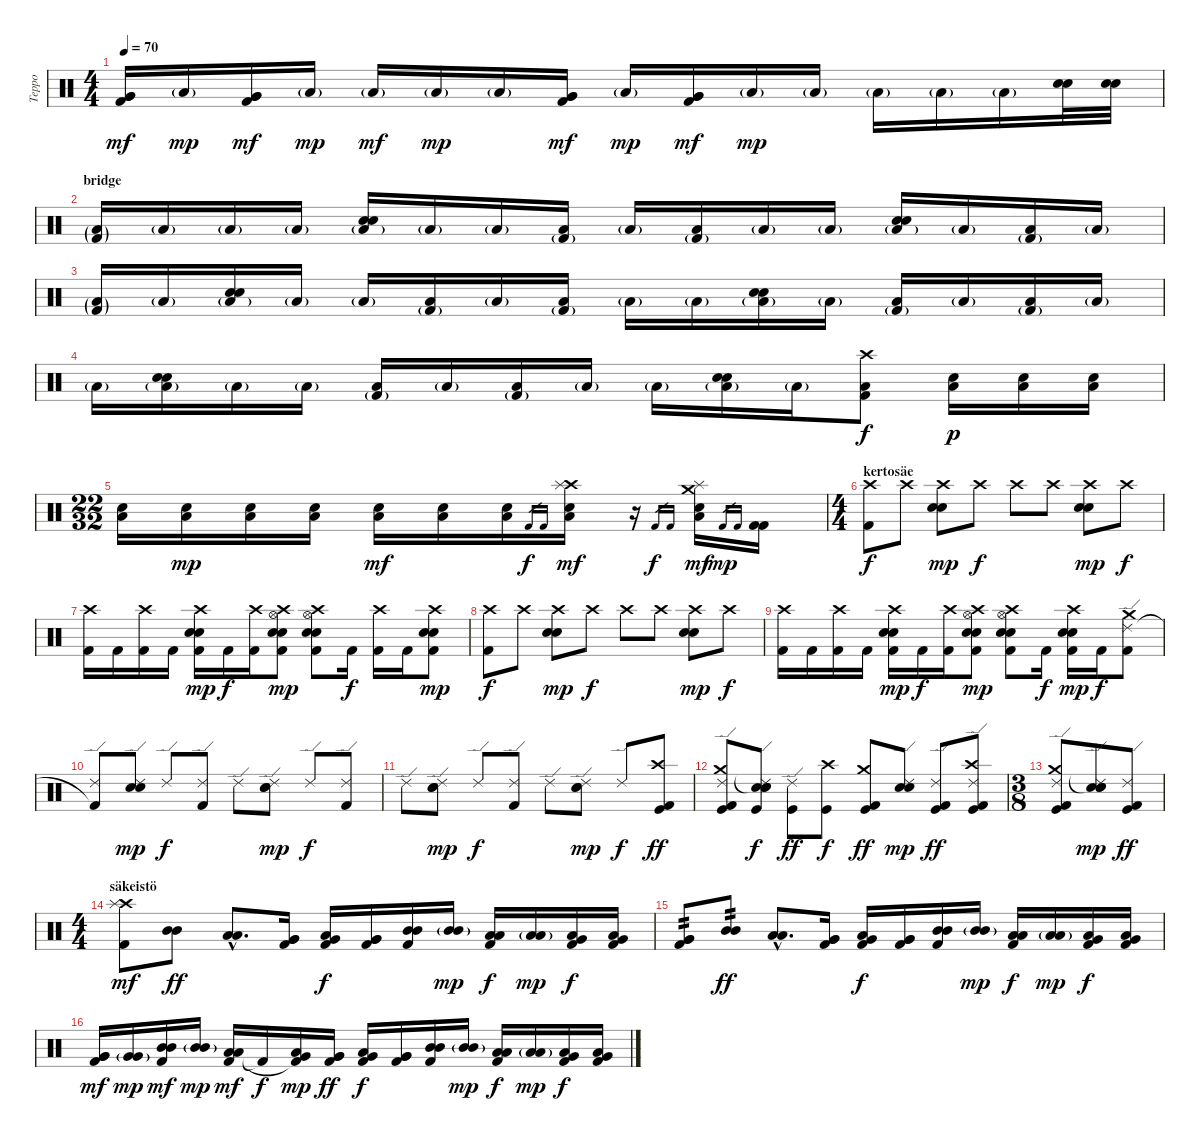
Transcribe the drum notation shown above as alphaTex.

\track ("Teppo" "Teppo") {instrument percussion}
\staff {score}
\articulation defaults
\ts (4 4)
\tempo 70
\clef neutral
\ks c
("Very Low Tom (hit)" "Very Low Tom (hit)" "Kick (hit) 2").16{dy mf} "Low Floor Tom (hit)"{g}.16{dy mp} ("Very Low Tom (hit)" "Very Low Tom (hit)" "Kick (hit) 2").16{dy mf} "Low Floor Tom (hit)"{g}.16{dy mp} "Low Floor Tom (hit)"{g}.16{dy mf} "Low Floor Tom (hit)"{g}.16{dy mp} "Low Floor Tom (hit)"{g}.16 ("Very Low Tom (hit)" "Very Low Tom (hit)" "Kick (hit) 2").16{dy mf} "Low Floor Tom (hit)"{g}.16{dy mp} ("Very Low Tom (hit)" "Very Low Tom (hit)" "Kick (hit) 2").16{dy mf} "Low Floor Tom (hit)"{g}.16{dy mp} "Low Floor Tom (hit)"{g}.16 "Low Floor Tom (hit)"{g}.16 "Low Floor Tom (hit)"{g}.16 "Low Floor Tom (hit)"{g}.16 ("Snare (hit) 2" "Electric Snare (hit)").32 ("Snare (hit) 2" "Electric Snare (hit)").32 |
\section ("" "bridge")
("Low Floor Tom (hit)"{g} "Kick (hit) 2"{g}).16 "Low Floor Tom (hit)"{g}.16 "Low Floor Tom (hit)"{g}.16 "Low Floor Tom (hit)"{g}.16 ("Low Floor Tom (hit)"{g} "Snare (hit) 2" "Electric Snare (hit)").16 "Low Floor Tom (hit)"{g}.16 "Low Floor Tom (hit)"{g}.16 ("Low Floor Tom (hit)" "Kick (hit) 2"{g}).16 "Low Floor Tom (hit)"{g}.16 ("Low Floor Tom (hit)" "Kick (hit) 2"{g}).16 "Low Floor Tom (hit)"{g}.16 "Low Floor Tom (hit)"{g}.16 ("Low Floor Tom (hit)"{g} "Snare (hit) 2" "Electric Snare (hit)").16 "Low Floor Tom (hit)"{g}.16 ("Low Floor Tom (hit)" "Kick (hit) 2"{g}).16 "Low Floor Tom (hit)"{g}.16 |
("Low Floor Tom (hit)"{g} "Kick (hit) 2"{g}).16 "Low Floor Tom (hit)"{g}.16 ("Low Floor Tom (hit)"{g} "Snare (hit) 2" "Electric Snare (hit)").16 "Low Floor Tom (hit)"{g}.16 "Low Floor Tom (hit)"{g}.16 ("Low Floor Tom (hit)" "Kick (hit) 2"{g}).16 "Low Floor Tom (hit)"{g}.16 ("Low Floor Tom (hit)" "Kick (hit) 2"{g}).16 "Low Floor Tom (hit)"{g}.16 "Low Floor Tom (hit)"{g}.16 ("Low Floor Tom (hit)"{g} "Snare (hit) 2" "Electric Snare (hit)").16 "Low Floor Tom (hit)"{g}.16 ("Low Floor Tom (hit)" "Kick (hit) 2"{g}).16 "Low Floor Tom (hit)"{g}.16 ("Low Floor Tom (hit)" "Kick (hit) 2"{g}).16 "Low Floor Tom (hit)"{g}.16 |
"Low Floor Tom (hit)"{g}.16 ("Low Floor Tom (hit)"{g} "Snare (hit) 2" "Electric Snare (hit)").16 "Low Floor Tom (hit)"{g}.16 "Low Floor Tom (hit)"{g}.16 ("Low Floor Tom (hit)" "Kick (hit) 2"{g}).16 "Low Floor Tom (hit)"{g}.16 ("Low Floor Tom (hit)" "Kick (hit) 2"{g}).16 "Low Floor Tom (hit)"{g}.16 "Low Floor Tom (hit)"{g}.16 ("Low Floor Tom (hit)"{g} "Snare (hit) 2" "Electric Snare (hit)").16 "Low Floor Tom (hit)"{g}.16 ("Crash high (hit)" "Low Floor Tom (hit)" "Kick (hit) 2").8{dy f} ("Low Floor Tom (hit)" "Electric Snare (hit)").16{dy p} ("Low Floor Tom (hit)" "Electric Snare (hit)").16 ("Low Floor Tom (hit)" "Electric Snare (hit)").16 |
\ts (22 32)
("Low Floor Tom (hit)" "Electric Snare (hit)").16 ("Low Floor Tom (hit)" "Electric Snare (hit)").16{dy mp} ("Low Floor Tom (hit)" "Electric Snare (hit)").16 ("Low Floor Tom (hit)" "Electric Snare (hit)").16 ("Low Floor Tom (hit)" "Electric Snare (hit)").16{dy mf} ("Low Floor Tom (hit)" "Electric Snare (hit)").16 ("Low Floor Tom (hit)" "Electric Snare (hit)").16 "Kick (hit) 2".16{gr dy f} "Kick (hit) 2".16{gr} ("Crash high (hit)" "Splash (hit)" "Low Floor Tom (hit)" "Electric Snare (hit)").16{dy mf} r.16 "Kick (hit) 2".16{gr dy f} "Kick (hit) 2".16{gr} ("Crash medium (hit)" "Splash (hit)" "Low Floor Tom (hit)" "Electric Snare (hit)").16{dy mf} "Kick (hit) 2".16{gr dy mp} "Kick (hit) 2".16{gr} ("Kick (hit) 2" "Kick (hit) 2").16 |
\ts (4 4)
\section ("" "kertosäe")
("Crash high (hit)" "Kick (hit) 2").8{dy f} "Crash high (hit)".8 ("Crash high (hit)" "Snare (hit) 2" "Electric Snare (hit)").8{dy mp} "Crash high (hit)".8{dy f} "Crash high (hit)".8 "Crash high (hit)".8 ("Crash high (hit)" "Snare (hit) 2" "Electric Snare (hit)").8{dy mp} "Crash high (hit)".8{dy f} |
("Crash high (hit)" "Kick (hit) 2").16 "Kick (hit) 2".16 ("Crash high (hit)" "Kick (hit) 2").16 "Kick (hit) 2".16 ("Crash high (hit)" "Snare (hit) 2" "Electric Snare (hit)" "Kick (hit) 2").16{dy mp} "Kick (hit) 2".16{dy f} ("Crash high (hit)" "Kick (hit) 2").16 ("Hi-Hat (open)" "Crash high (hit)" "Snare (hit) 2" "Electric Snare (hit)" "Kick (hit) 2").8{dy mp} ("Hi-Hat (open)" "Crash high (hit)" "Snare (hit) 2" "Electric Snare (hit)" "Kick (hit) 2").8 "Kick (hit) 2".16{dy f} ("Crash high (hit)" "Kick (hit) 2").16 "Kick (hit) 2".16 ("Crash high (hit)" "Snare (hit) 2" "Electric Snare (hit)" "Kick (hit) 2").8{dy mp} |
("Crash high (hit)" "Kick (hit) 2").8{dy f} "Crash high (hit)".8 ("Crash high (hit)" "Snare (hit) 2" "Electric Snare (hit)").8{dy mp} "Crash high (hit)".8{dy f} "Crash high (hit)".8 "Crash high (hit)".8 ("Crash high (hit)" "Snare (hit) 2" "Electric Snare (hit)").8{dy mp} "Crash high (hit)".8{dy f} |
("Crash high (hit)" "Kick (hit) 2").16 "Kick (hit) 2".16 ("Crash high (hit)" "Kick (hit) 2").16 "Kick (hit) 2".16 ("Crash high (hit)" "Snare (hit) 2" "Electric Snare (hit)" "Kick (hit) 2").16{dy mp} "Kick (hit) 2".16{dy f} ("Crash high (hit)" "Kick (hit) 2").16 ("Hi-Hat (open)" "Crash high (hit)" "Snare (hit) 2" "Electric Snare (hit)" "Kick (hit) 2").8{dy mp} ("Hi-Hat (open)" "Crash high (hit)" "Snare (hit) 2" "Electric Snare (hit)" "Kick (hit) 2").8 "Kick (hit) 2".16{dy f} ("Crash high (hit)" "Snare (hit) 2" "Electric Snare (hit)" "Kick (hit) 2").16{dy mp} "Kick (hit) 2".16{dy f} ("Crash medium (hit)" "Ride (edge) 2" "Kick (hit) 2").8 |
("Ride (edge) 2" "Kick (hit) 2"{t}).8 ("Ride (edge) 2" "Snare (hit) 2" "Electric Snare (hit)").8{dy mp} "Ride (edge) 2".8{dy f} ("Ride (edge) 2" "Kick (hit) 2").8 "Ride (edge) 2".8 ("Ride (edge) 2" "Snare (hit) 2" "Electric Snare (hit)").8{dy mp} "Ride (edge) 2".8{dy f} ("Ride (edge) 2" "Kick (hit) 2").8 |
"Ride (edge) 2".8 ("Ride (edge) 2" "Snare (hit) 2" "Electric Snare (hit)").8{dy mp} "Ride (edge) 2".8{dy f} ("Ride (edge) 2" "Kick (hit) 2").8 "Ride (edge) 2".8 ("Ride (edge) 2" "Snare (hit) 2" "Electric Snare (hit)").8{dy mp} "Ride (edge) 2".8{dy f} ("Crash high (hit)" "Kick (hit) 2" "Kick (hit)").8{dy ff} |
("Ride (edge) 2" "Crash medium (hit)" "Kick (hit) 2" "Kick (hit)").8 ("Ride (edge) 2" "Snare (hit)"{t} "Snare (hit) 2" "Electric Snare (hit)" "Kick (hit)").8{dy f} ("Ride (edge) 2" "Kick (hit)").8{dy ff} ("Crash high (hit)" "Kick (hit)").8{dy f} ("Crash medium (hit)" "Kick (hit) 2" "Kick (hit)").8{dy ff} ("Ride (edge) 2" "Snare (hit) 2" "Electric Snare (hit)").8{dy mp} ("Ride (edge) 2" "Kick (hit) 2" "Kick (hit)").8{dy ff} ("Crash high (hit)" "Ride (edge) 2" "Kick (hit) 2" "Kick (hit)").8 |
\ts (3 8)
("Ride (edge) 2" "Crash medium (hit)" "Kick (hit) 2" "Kick (hit)").8 ("Ride (edge) 2" "Snare (hit)"{t} "Snare (hit) 2" "Electric Snare (hit)").8{dy mp} ("Ride (edge) 2" "Kick (hit) 2" "Kick (hit)").8{dy ff} |
\ts (4 4)
\section ("" "säkeistö")
("Crash high (hit)" "Splash (hit)" "Kick (hit) 2").8{dy mf} ("Mid Tom (hit)" "Mid Tom (hit)").8{dy ff} ("Low Tom (hit)"{hac} "Low Tom (hit)"{hac}).8{d} ("Very Low Tom (hit)" "Very Low Tom (hit)" "Kick (hit) 2").16 ("Low Tom (hit)" "Very Low Tom (hit)" "Kick (hit) 2").16{dy f} ("Very Low Tom (hit)" "Very Low Tom (hit)" "Kick (hit) 2").16 ("Mid Tom (hit)" "Mid Tom (hit)" "Kick (hit) 2").16 ("Mid Tom (hit)"{g} "Mid Tom (hit)"{g}).16{dy mp} ("Low Tom (hit)" "Low Tom (hit)" "Kick (hit) 2").16{dy f} ("Low Tom (hit)"{g} "Low Tom (hit)"{g}).16{dy mp} ("Very Low Tom (hit)" "Low Tom (hit)" "Kick (hit) 2").16{dy f} ("Low Floor Tom (hit)" "Very Low Tom (hit)" "Kick (hit) 2").16 |
("Very Low Tom (hit)" "Very Low Tom (hit)" "Kick (hit) 2").8{tp 2} ("Mid Tom (hit)" "Mid Tom (hit)").8{tp 2 dy ff} ("Low Tom (hit)"{hac} "Low Tom (hit)"{hac}).8{d} ("Very Low Tom (hit)" "Very Low Tom (hit)" "Kick (hit) 2").16 ("Low Tom (hit)" "Very Low Tom (hit)" "Kick (hit) 2").16{dy f} ("Very Low Tom (hit)" "Very Low Tom (hit)" "Kick (hit) 2").16 ("Mid Tom (hit)" "Mid Tom (hit)" "Kick (hit) 2").16 ("Mid Tom (hit)"{g} "Mid Tom (hit)"{g}).16{dy mp} ("Low Tom (hit)" "Low Tom (hit)" "Kick (hit) 2").16{dy f} ("Low Tom (hit)"{g} "Low Tom (hit)"{g}).16{dy mp} ("Very Low Tom (hit)" "Low Tom (hit)" "Kick (hit) 2").16{dy f} ("Low Floor Tom (hit)" "Very Low Tom (hit)" "Kick (hit) 2").16 |
("Very Low Tom (hit)" "Very Low Tom (hit)" "Kick (hit) 2").16{dy mf} ("Very Low Tom (hit)"{g} "Very Low Tom (hit)"{g}).16{dy mp} ("Mid Tom (hit)" "Mid Tom (hit)" "Kick (hit) 2").16{dy mf} ("Mid Tom (hit)"{g} "Mid Tom (hit)"{g}).16{dy mp} ("Low Tom (hit)" "Low Tom (hit)" "Kick (hit) 2").16{dy mf} "Kick (hit) 2"{t}.16{dy f} ("Very Low Tom (hit)" "Low Tom (hit)" "Kick (hit) 2"{t}).16{dy mp} ("Very Low Tom (hit)" "Very Low Tom (hit)" "Kick (hit) 2").16{dy ff} ("Low Tom (hit)" "Very Low Tom (hit)" "Kick (hit) 2").16{dy f} ("Very Low Tom (hit)" "Very Low Tom (hit)" "Kick (hit) 2").16 ("Mid Tom (hit)" "Mid Tom (hit)" "Kick (hit) 2").16 ("Mid Tom (hit)"{g} "Mid Tom (hit)"{g}).16{dy mp} ("Low Tom (hit)" "Low Tom (hit)" "Kick (hit) 2").16{dy f} ("Low Tom (hit)"{g} "Low Tom (hit)"{g}).16{dy mp} ("Very Low Tom (hit)" "Low Tom (hit)" "Kick (hit) 2").16{dy f} ("Low Floor Tom (hit)" "Very Low Tom (hit)" "Kick (hit) 2").16
